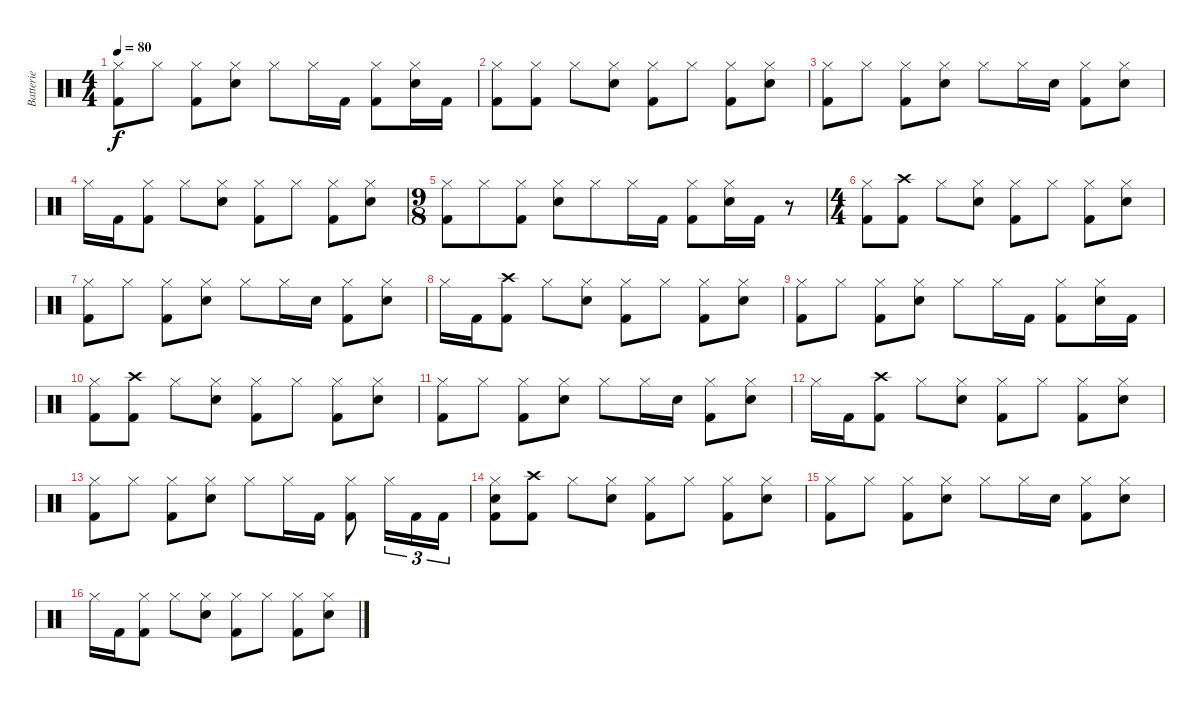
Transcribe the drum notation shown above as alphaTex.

\track ("Batterie" "Batterie") {instrument percussion}
\staff {score}
\articulation defaults
\ts (4 4)
\tempo 80
\clef neutral
\ks c
("Kick (hit) 2" "Hi-Hat (closed)").8{dy f} "Hi-Hat (closed)".8 ("Kick (hit) 2" "Hi-Hat (closed)").8 ("Snare (hit) 2" "Hi-Hat (closed)").8 "Hi-Hat (closed)".8 "Hi-Hat (closed)".16 "Kick (hit) 2".16 ("Kick (hit) 2" "Hi-Hat (closed)").8 ("Snare (hit) 2" "Hi-Hat (closed)").16 "Kick (hit) 2".16 |
("Kick (hit) 2" "Hi-Hat (closed)").8 ("Kick (hit) 2" "Hi-Hat (closed)").8 "Hi-Hat (closed)".8 ("Snare (hit) 2" "Hi-Hat (closed)").8 ("Kick (hit) 2" "Hi-Hat (closed)").8 "Hi-Hat (closed)".8 ("Kick (hit) 2" "Hi-Hat (closed)").8 ("Snare (hit) 2" "Hi-Hat (closed)").8 |
("Kick (hit) 2" "Hi-Hat (closed)").8 "Hi-Hat (closed)".8 ("Kick (hit) 2" "Hi-Hat (closed)").8 ("Snare (hit) 2" "Hi-Hat (closed)").8 "Hi-Hat (closed)".8 "Hi-Hat (closed)".16 "Snare (hit) 2".16 ("Kick (hit) 2" "Hi-Hat (closed)").8 ("Snare (hit) 2" "Hi-Hat (closed)").8 |
"Hi-Hat (closed)".16 "Kick (hit) 2".16 ("Kick (hit) 2" "Hi-Hat (closed)").8 "Hi-Hat (closed)".8 ("Snare (hit) 2" "Hi-Hat (closed)").8 ("Kick (hit) 2" "Hi-Hat (closed)").8 "Hi-Hat (closed)".8 ("Kick (hit) 2" "Hi-Hat (closed)").8 ("Snare (hit) 2" "Hi-Hat (closed)").8 |
\ts (9 8)
("Kick (hit) 2" "Hi-Hat (closed)").8 "Hi-Hat (closed)".8 ("Kick (hit) 2" "Hi-Hat (closed)").8 ("Snare (hit) 2" "Hi-Hat (closed)").8 "Hi-Hat (closed)".8 "Hi-Hat (closed)".16 "Kick (hit) 2".16 ("Kick (hit) 2" "Hi-Hat (closed)").8 ("Snare (hit) 2" "Hi-Hat (closed)").16 "Kick (hit) 2".16 r.8 |
\ts (4 4)
("Kick (hit) 2" "Hi-Hat (closed)").8 ("Kick (hit) 2" "Crash high (hit)").8 "Hi-Hat (closed)".8 ("Snare (hit) 2" "Hi-Hat (closed)").8 ("Kick (hit) 2" "Hi-Hat (closed)").8 "Hi-Hat (closed)".8 ("Kick (hit) 2" "Hi-Hat (closed)").8 ("Snare (hit) 2" "Hi-Hat (closed)").8 |
("Kick (hit) 2" "Hi-Hat (closed)").8 "Hi-Hat (closed)".8 ("Kick (hit) 2" "Hi-Hat (closed)").8 ("Snare (hit) 2" "Hi-Hat (closed)").8 "Hi-Hat (closed)".8 "Hi-Hat (closed)".16 "Snare (hit) 2".16 ("Kick (hit) 2" "Hi-Hat (closed)").8 ("Snare (hit) 2" "Hi-Hat (closed)").8 |
"Hi-Hat (closed)".16 "Kick (hit) 2".16 ("Kick (hit) 2" "Crash high (hit)").8 "Hi-Hat (closed)".8 ("Snare (hit) 2" "Hi-Hat (closed)").8 ("Kick (hit) 2" "Hi-Hat (closed)").8 "Hi-Hat (closed)".8 ("Kick (hit) 2" "Hi-Hat (closed)").8 ("Snare (hit) 2" "Hi-Hat (closed)").8 |
("Kick (hit) 2" "Hi-Hat (closed)").8 "Hi-Hat (closed)".8 ("Kick (hit) 2" "Hi-Hat (closed)").8 ("Snare (hit) 2" "Hi-Hat (closed)").8 "Hi-Hat (closed)".8 "Hi-Hat (closed)".16 "Kick (hit) 2".16 ("Kick (hit) 2" "Hi-Hat (closed)").8 ("Snare (hit) 2" "Hi-Hat (closed)").16 "Kick (hit) 2".16 |
("Kick (hit) 2" "Hi-Hat (closed)").8 ("Kick (hit) 2" "Crash high (hit)").8 "Hi-Hat (closed)".8 ("Snare (hit) 2" "Hi-Hat (closed)").8 ("Kick (hit) 2" "Hi-Hat (closed)").8 "Hi-Hat (closed)".8 ("Kick (hit) 2" "Hi-Hat (closed)").8 ("Snare (hit) 2" "Hi-Hat (closed)").8 |
("Kick (hit) 2" "Hi-Hat (closed)").8 "Hi-Hat (closed)".8 ("Kick (hit) 2" "Hi-Hat (closed)").8 ("Snare (hit) 2" "Hi-Hat (closed)").8 "Hi-Hat (closed)".8 "Hi-Hat (closed)".16 "Snare (hit) 2".16 ("Kick (hit) 2" "Hi-Hat (closed)").8 ("Snare (hit) 2" "Hi-Hat (closed)").8 |
"Hi-Hat (closed)".16 "Kick (hit) 2".16 ("Kick (hit) 2" "Crash high (hit)").8 "Hi-Hat (closed)".8 ("Snare (hit) 2" "Hi-Hat (closed)").8 ("Kick (hit) 2" "Hi-Hat (closed)").8 "Hi-Hat (closed)".8 ("Kick (hit) 2" "Hi-Hat (closed)").8 ("Snare (hit) 2" "Hi-Hat (closed)").8 |
("Kick (hit) 2" "Hi-Hat (closed)").8 "Hi-Hat (closed)".8 ("Kick (hit) 2" "Hi-Hat (closed)").8 ("Snare (hit) 2" "Hi-Hat (closed)").8 "Hi-Hat (closed)".8 "Hi-Hat (closed)".16 "Kick (hit) 2".16 ("Kick (hit) 2" "Hi-Hat (closed)").8 "Hi-Hat (closed)".16{tu (3 2)} "Kick (hit) 2".16{tu (3 2)} "Kick (hit) 2".16{tu (3 2)} |
("Kick (hit) 2" "Snare (hit) 2" "Hi-Hat (closed)").8 ("Kick (hit) 2" "Crash high (hit)").8 "Hi-Hat (closed)".8 ("Snare (hit) 2" "Hi-Hat (closed)").8 ("Kick (hit) 2" "Hi-Hat (closed)").8 "Hi-Hat (closed)".8 ("Kick (hit) 2" "Hi-Hat (closed)").8 ("Snare (hit) 2" "Hi-Hat (closed)").8 |
("Kick (hit) 2" "Hi-Hat (closed)").8 "Hi-Hat (closed)".8 ("Kick (hit) 2" "Hi-Hat (closed)").8 ("Snare (hit) 2" "Hi-Hat (closed)").8 "Hi-Hat (closed)".8 "Hi-Hat (closed)".16 "Snare (hit) 2".16 ("Kick (hit) 2" "Hi-Hat (closed)").8 ("Snare (hit) 2" "Hi-Hat (closed)").8 |
"Hi-Hat (closed)".16 "Kick (hit) 2".16 ("Kick (hit) 2" "Hi-Hat (closed)").8 "Hi-Hat (closed)".8 ("Snare (hit) 2" "Hi-Hat (closed)").8 ("Kick (hit) 2" "Hi-Hat (closed)").8 "Hi-Hat (closed)".8 ("Kick (hit) 2" "Hi-Hat (closed)").8 ("Snare (hit) 2" "Hi-Hat (closed)").8
